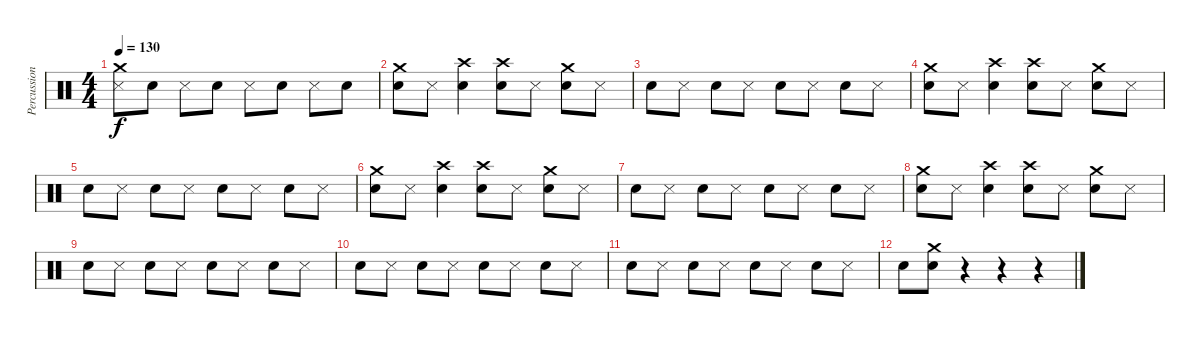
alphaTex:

\track ("Percussion" "Percussion") {instrument percussion}
\staff {score}
\articulation defaults
\ts (4 4)
\tempo 130
\clef neutral
\ks c
("Crash medium (hit)" "Metronome (hit)").8{dy f} "Electric Snare (hit)".8 "Metronome (hit)".8 "Electric Snare (hit)".8 "Metronome (hit)".8 "Electric Snare (hit)".8 "Metronome (hit)".8 "Electric Snare (hit)".8 |
("Crash medium (hit)" "Electric Snare (hit)").8 "Metronome (hit)".8 ("Crash high (hit)" "Electric Snare (hit)").4 ("Crash high (hit)" "Electric Snare (hit)").8 "Metronome (hit)".8 ("Crash medium (hit)" "Electric Snare (hit)").8 "Metronome (hit)".8 |
"Electric Snare (hit)".8 "Metronome (hit)".8 "Electric Snare (hit)".8 "Metronome (hit)".8 "Electric Snare (hit)".8 "Metronome (hit)".8 "Electric Snare (hit)".8 "Metronome (hit)".8 |
("Crash medium (hit)" "Electric Snare (hit)").8 "Metronome (hit)".8 ("Crash high (hit)" "Electric Snare (hit)").4 ("Crash high (hit)" "Electric Snare (hit)").8 "Metronome (hit)".8 ("Crash medium (hit)" "Electric Snare (hit)").8 "Metronome (hit)".8 |
"Electric Snare (hit)".8 "Metronome (hit)".8 "Electric Snare (hit)".8 "Metronome (hit)".8 "Electric Snare (hit)".8 "Metronome (hit)".8 "Electric Snare (hit)".8 "Metronome (hit)".8 |
("Crash medium (hit)" "Electric Snare (hit)").8 "Metronome (hit)".8 ("Crash high (hit)" "Electric Snare (hit)").4 ("Crash high (hit)" "Electric Snare (hit)").8 "Metronome (hit)".8 ("Crash medium (hit)" "Electric Snare (hit)").8 "Metronome (hit)".8 |
"Electric Snare (hit)".8 "Metronome (hit)".8 "Electric Snare (hit)".8 "Metronome (hit)".8 "Electric Snare (hit)".8 "Metronome (hit)".8 "Electric Snare (hit)".8 "Metronome (hit)".8 |
("Crash medium (hit)" "Electric Snare (hit)").8 "Metronome (hit)".8 ("Crash high (hit)" "Electric Snare (hit)").4 ("Crash high (hit)" "Electric Snare (hit)").8 "Metronome (hit)".8 ("Crash medium (hit)" "Electric Snare (hit)").8 "Metronome (hit)".8 |
"Electric Snare (hit)".8 "Metronome (hit)".8 "Electric Snare (hit)".8 "Metronome (hit)".8 "Electric Snare (hit)".8 "Metronome (hit)".8 "Electric Snare (hit)".8 "Metronome (hit)".8 |
"Electric Snare (hit)".8 "Metronome (hit)".8 "Electric Snare (hit)".8 "Metronome (hit)".8 "Electric Snare (hit)".8 "Metronome (hit)".8 "Electric Snare (hit)".8 "Metronome (hit)".8 |
"Electric Snare (hit)".8 "Metronome (hit)".8 "Electric Snare (hit)".8 "Metronome (hit)".8 "Electric Snare (hit)".8 "Metronome (hit)".8 "Electric Snare (hit)".8 "Metronome (hit)".8 |
"Electric Snare (hit)".8 ("Crash medium (hit)" "Electric Snare (hit)").8 r.4 r.4 r.4
